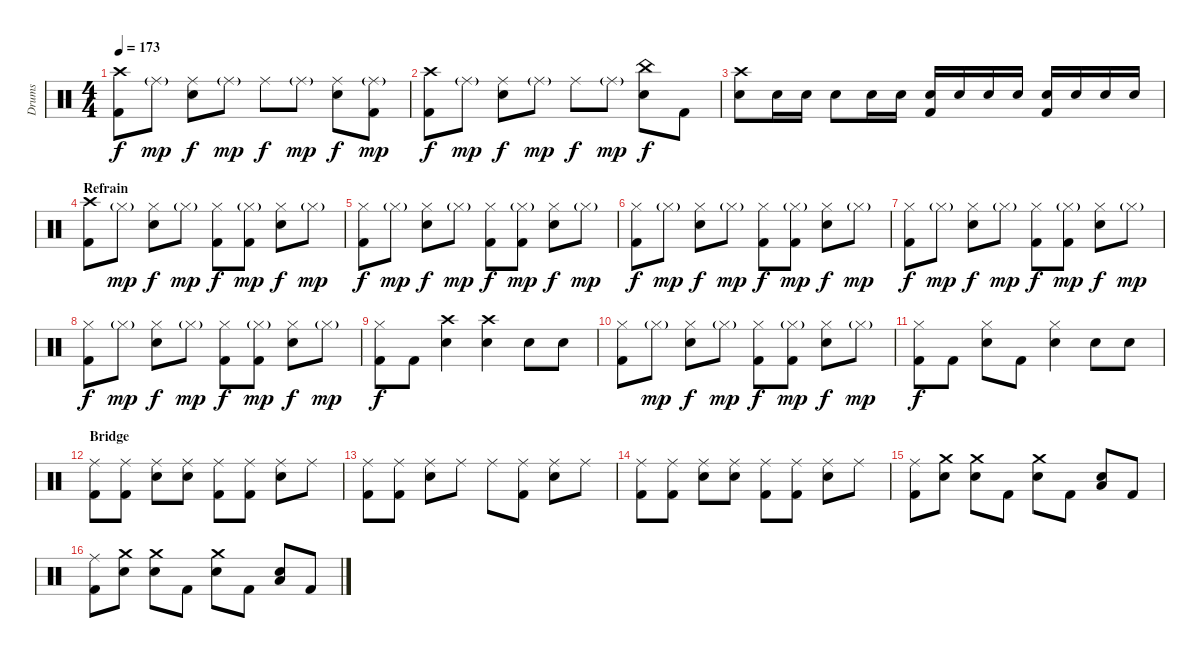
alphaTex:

\track ("Drums" "Drums") {instrument percussion}
\staff {score}
\articulation defaults
\ts (4 4)
\tempo 173
\clef neutral
\ks c
("Crash high (hit)" "Kick (hit) 2").8{dy f} "Ride (middle)"{g}.8{dy mp} ("Ride (middle)" "Electric Snare (hit)").8{dy f} "Ride (middle)"{g}.8{dy mp} "Ride (middle)".8{dy f} "Ride (middle)"{g}.8{dy mp} ("Ride (middle)" "Electric Snare (hit)").8{dy f} ("Ride (middle)"{g} "Kick (hit) 2").8{dy mp} |
("Crash high (hit)" "Kick (hit) 2").8{dy f} "Ride (middle)"{g}.8{dy mp} ("Ride (middle)" "Electric Snare (hit)").8{dy f} "Ride (middle)"{g}.8{dy mp} "Ride (middle)".8{dy f} "Ride (middle)"{g}.8{dy mp} ("China (hit)" "Electric Snare (hit)").8{dy f} "Kick (hit) 2".8 |
("Crash high (hit)" "Electric Snare (hit)").8 "Electric Snare (hit)".16 "Electric Snare (hit)".16 "Electric Snare (hit)".8 "Electric Snare (hit)".16 "Electric Snare (hit)".16 ("Electric Snare (hit)" "Kick (hit) 2").16 "Electric Snare (hit)".16 "Electric Snare (hit)".16 "Electric Snare (hit)".16 ("Electric Snare (hit)" "Kick (hit) 2").16 "Electric Snare (hit)".16 "Electric Snare (hit)".16 "Electric Snare (hit)".16 |
\section ("" "Refrain")
("Crash high (hit)" "Kick (hit) 2").8 "Hi-Hat (closed)"{g}.8{dy mp} ("Hi-Hat (closed)" "Electric Snare (hit)").8{dy f} "Hi-Hat (closed)"{g}.8{dy mp} ("Hi-Hat (closed)" "Kick (hit) 2").8{dy f} ("Hi-Hat (closed)"{g} "Kick (hit) 2").8{dy mp} ("Hi-Hat (closed)" "Electric Snare (hit)").8{dy f} "Hi-Hat (closed)"{g}.8{dy mp} |
("Hi-Hat (closed)" "Kick (hit) 2").8{dy f} "Hi-Hat (closed)"{g}.8{dy mp} ("Hi-Hat (closed)" "Electric Snare (hit)").8{dy f} "Hi-Hat (closed)"{g}.8{dy mp} ("Hi-Hat (closed)" "Kick (hit) 2").8{dy f} ("Hi-Hat (closed)"{g} "Kick (hit) 2").8{dy mp} ("Hi-Hat (closed)" "Electric Snare (hit)").8{dy f} "Hi-Hat (closed)"{g}.8{dy mp} |
("Hi-Hat (closed)" "Kick (hit) 2").8{dy f} "Hi-Hat (closed)"{g}.8{dy mp} ("Hi-Hat (closed)" "Electric Snare (hit)").8{dy f} "Hi-Hat (closed)"{g}.8{dy mp} ("Hi-Hat (closed)" "Kick (hit) 2").8{dy f} ("Hi-Hat (closed)"{g} "Kick (hit) 2").8{dy mp} ("Hi-Hat (closed)" "Electric Snare (hit)").8{dy f} "Hi-Hat (closed)"{g}.8{dy mp} |
("Hi-Hat (closed)" "Kick (hit) 2").8{dy f} "Hi-Hat (closed)"{g}.8{dy mp} ("Hi-Hat (closed)" "Electric Snare (hit)").8{dy f} "Hi-Hat (closed)"{g}.8{dy mp} ("Hi-Hat (closed)" "Kick (hit) 2").8{dy f} ("Hi-Hat (closed)"{g} "Kick (hit) 2").8{dy mp} ("Hi-Hat (closed)" "Electric Snare (hit)").8{dy f} "Hi-Hat (closed)"{g}.8{dy mp} |
("Hi-Hat (closed)" "Kick (hit) 2").8{dy f} "Hi-Hat (closed)"{g}.8{dy mp} ("Hi-Hat (closed)" "Electric Snare (hit)").8{dy f} "Hi-Hat (closed)"{g}.8{dy mp} ("Hi-Hat (closed)" "Kick (hit) 2").8{dy f} ("Hi-Hat (closed)"{g} "Kick (hit) 2").8{dy mp} ("Hi-Hat (closed)" "Electric Snare (hit)").8{dy f} "Hi-Hat (closed)"{g}.8{dy mp} |
("Hi-Hat (closed)" "Kick (hit) 2").8{dy f} "Kick (hit) 2".8 ("Crash high (hit)" "Electric Snare (hit)").4 ("Crash high (hit)" "Electric Snare (hit)").4 "Electric Snare (hit)".8 "Electric Snare (hit)".8 |
("Hi-Hat (closed)" "Kick (hit) 2").8 "Hi-Hat (closed)"{g}.8{dy mp} ("Hi-Hat (closed)" "Electric Snare (hit)").8{dy f} "Hi-Hat (closed)"{g}.8{dy mp} ("Hi-Hat (closed)" "Kick (hit) 2").8{dy f} ("Hi-Hat (closed)"{g} "Kick (hit) 2").8{dy mp} ("Hi-Hat (closed)" "Electric Snare (hit)").8{dy f} "Hi-Hat (closed)"{g}.8{dy mp} |
("Hi-Hat (closed)" "Kick (hit) 2").8{dy f} "Kick (hit) 2".8 ("Hi-Hat (closed)" "Electric Snare (hit)").8 "Kick (hit) 2".8 ("Hi-Hat (closed)" "Electric Snare (hit)").4 "Electric Snare (hit)".8 "Electric Snare (hit)".8 |
\section ("" "Bridge")
("Ride (middle)" "Kick (hit) 2").8 ("Ride (middle)" "Kick (hit) 2").8 ("Ride (middle)" "Electric Snare (hit)").8 ("Ride (middle)" "Electric Snare (hit)").8 ("Ride (middle)" "Kick (hit) 2").8 ("Ride (middle)" "Kick (hit) 2").8 ("Ride (middle)" "Electric Snare (hit)").8 "Ride (middle)".8 |
("Ride (middle)" "Kick (hit) 2").8 ("Ride (middle)" "Kick (hit) 2").8 ("Ride (middle)" "Electric Snare (hit)").8 "Ride (middle)".8 "Ride (middle)".8 ("Ride (middle)" "Kick (hit) 2").8 ("Ride (middle)" "Electric Snare (hit)").8 "Ride (middle)".8 |
("Ride (middle)" "Kick (hit) 2").8 ("Ride (middle)" "Kick (hit) 2").8 ("Ride (middle)" "Electric Snare (hit)").8 ("Ride (middle)" "Electric Snare (hit)").8 ("Ride (middle)" "Kick (hit) 2").8 ("Ride (middle)" "Kick (hit) 2").8 ("Ride (middle)" "Electric Snare (hit)").8 "Ride (middle)".8 |
("Ride (middle)" "Kick (hit) 2").8 ("Crash medium (hit)" "Electric Snare (hit)").8 ("Crash medium (hit)" "Electric Snare (hit)").8 "Kick (hit) 2".8 ("Crash medium (hit)" "Electric Snare (hit)").8 "Kick (hit) 2".8 ("Electric Snare (hit)" "Low Tom (hit)").8 "Kick (hit) 2".8 |
("Ride (middle)" "Kick (hit) 2").8 ("Crash medium (hit)" "Electric Snare (hit)").8 ("Crash medium (hit)" "Electric Snare (hit)").8 "Kick (hit) 2".8 ("Crash medium (hit)" "Electric Snare (hit)").8 "Kick (hit) 2".8 ("Electric Snare (hit)" "Low Tom (hit)").8 "Kick (hit) 2".8
